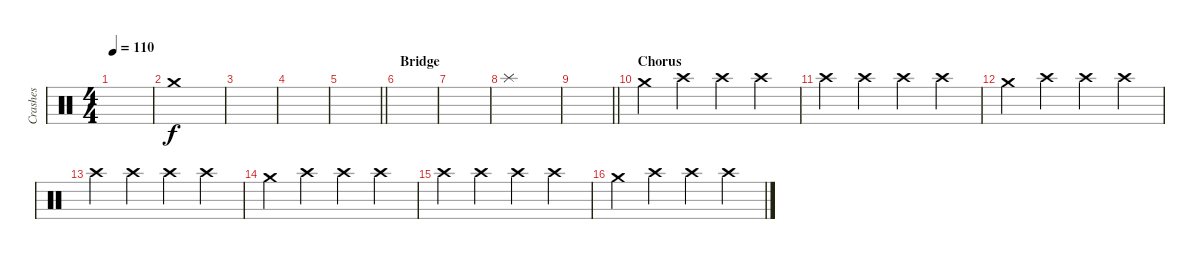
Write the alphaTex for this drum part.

\track ("Crashes" "Crashes") {instrument percussion}
\staff {score}
\articulation defaults
\ts (4 4)
\tempo 110
\clef neutral
\ks c
|
"Crash medium (hit)".1 |
|
|
\barLineRight lightlight
|
\section ("" "Bridge")
|
|
"Splash (hit)".1 |
\barLineRight lightlight
|
\section ("" "Chorus")
"Crash medium (hit)".4 "Crash high (hit)".4 "Crash high (hit)".4 "Crash high (hit)".4 |
"Crash high (hit)".4 "Crash high (hit)".4 "Crash high (hit)".4 "Crash high (hit)".4 |
"Crash medium (hit)".4 "Crash high (hit)".4 "Crash high (hit)".4 "Crash high (hit)".4 |
"Crash high (hit)".4 "Crash high (hit)".4 "Crash high (hit)".4 "Crash high (hit)".4 |
"Crash medium (hit)".4 "Crash high (hit)".4 "Crash high (hit)".4 "Crash high (hit)".4 |
"Crash high (hit)".4 "Crash high (hit)".4 "Crash high (hit)".4 "Crash high (hit)".4 |
"Crash medium (hit)".4 "Crash high (hit)".4 "Crash high (hit)".4 "Crash high (hit)".4
